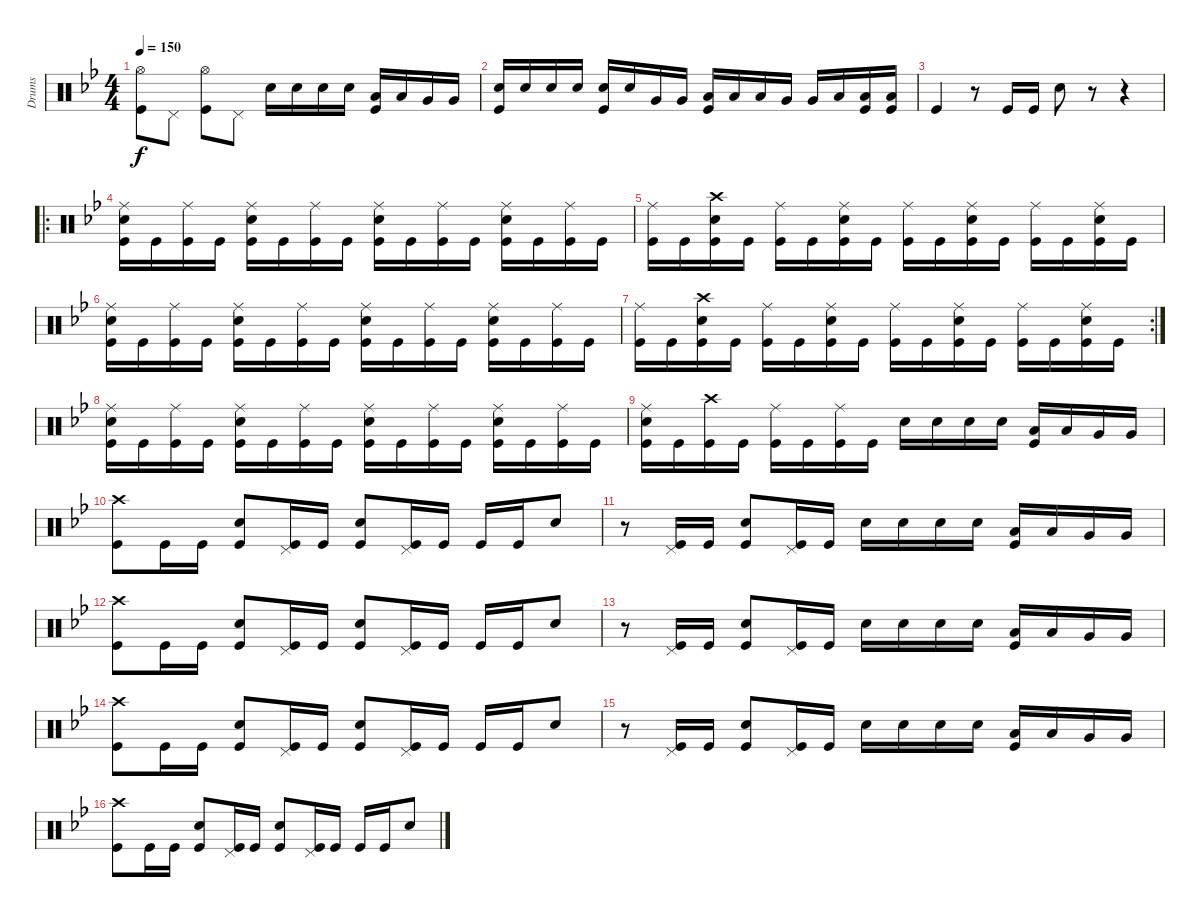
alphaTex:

\track ("Drums" "Drums") {instrument percussion}
\staff {score}
\articulation defaults
\ts (4 4)
\tempo 150
\clef neutral
\ks bb
("Hi-Hat (open)" "Kick (hit)").8{dy f} "Pedal Hi-Hat (hit)".8 ("Hi-Hat (open)" "Kick (hit)").8 "Pedal Hi-Hat (hit)".8 "Electric Snare (hit)".16 "Electric Snare (hit)".16 "Electric Snare (hit)".16 "Electric Snare (hit)".16 ("Low Tom (hit)" "Kick (hit)").16 "Low Tom (hit)".16 "Very Low Tom (hit)".16 "Very Low Tom (hit)".16 |
("Electric Snare (hit)" "Kick (hit)").16 "Electric Snare (hit)".16 "Electric Snare (hit)".16 "Electric Snare (hit)".16 ("Electric Snare (hit)" "Kick (hit)").16 "Electric Snare (hit)".16 "Very Low Tom (hit)".16 "Very Low Tom (hit)".16 ("Low Tom (hit)" "Kick (hit)").16 "Low Tom (hit)".16 "Low Tom (hit)".16 "Very Low Tom (hit)".16 "Very Low Tom (hit)".16 "Low Floor Tom (hit)".16 ("Low Floor Tom (hit)" "Kick (hit)").16 ("Low Floor Tom (hit)" "Kick (hit)").16 |
"Kick (hit)".4 r.8 "Kick (hit)".16 "Kick (hit)".16 "Electric Snare (hit)".8 r.8 r.4 |
\ro
("Ride (middle)" "Electric Snare (hit)" "Kick (hit)").16 "Kick (hit)".16 ("Ride (middle)" "Kick (hit)").16 "Kick (hit)".16 ("Ride (middle)" "Electric Snare (hit)" "Kick (hit)").16 "Kick (hit)".16 ("Ride (middle)" "Kick (hit)").16 "Kick (hit)".16 ("Ride (middle)" "Electric Snare (hit)" "Kick (hit)").16 "Kick (hit)".16 ("Ride (middle)" "Kick (hit)").16 "Kick (hit)".16 ("Ride (middle)" "Electric Snare (hit)" "Kick (hit)").16 "Kick (hit)".16 ("Ride (middle)" "Kick (hit)").16 "Kick (hit)".16 |
("Ride (middle)" "Kick (hit)").16 "Kick (hit)".16 ("Crash high (hit)" "Electric Snare (hit)" "Kick (hit)").16 "Kick (hit)".16 ("Ride (middle)" "Kick (hit)").16 "Kick (hit)".16 ("Ride (middle)" "Electric Snare (hit)" "Kick (hit)").16 "Kick (hit)".16 ("Ride (middle)" "Kick (hit)").16 "Kick (hit)".16 ("Ride (middle)" "Electric Snare (hit)" "Kick (hit)").16 "Kick (hit)".16 ("Ride (middle)" "Kick (hit)").16 "Kick (hit)".16 ("Ride (middle)" "Electric Snare (hit)" "Kick (hit)").16 "Kick (hit)".16 |
("Ride (middle)" "Electric Snare (hit)" "Kick (hit)").16 "Kick (hit)".16 ("Ride (middle)" "Kick (hit)").16 "Kick (hit)".16 ("Ride (middle)" "Electric Snare (hit)" "Kick (hit)").16 "Kick (hit)".16 ("Ride (middle)" "Kick (hit)").16 "Kick (hit)".16 ("Ride (middle)" "Electric Snare (hit)" "Kick (hit)").16 "Kick (hit)".16 ("Ride (middle)" "Kick (hit)").16 "Kick (hit)".16 ("Ride (middle)" "Electric Snare (hit)" "Kick (hit)").16 "Kick (hit)".16 ("Ride (middle)" "Kick (hit)").16 "Kick (hit)".16 |
\rc 2
("Ride (middle)" "Kick (hit)").16 "Kick (hit)".16 ("Crash high (hit)" "Electric Snare (hit)" "Kick (hit)").16 "Kick (hit)".16 ("Ride (middle)" "Kick (hit)").16 "Kick (hit)".16 ("Ride (middle)" "Electric Snare (hit)" "Kick (hit)").16 "Kick (hit)".16 ("Ride (middle)" "Kick (hit)").16 "Kick (hit)".16 ("Ride (middle)" "Electric Snare (hit)" "Kick (hit)").16 "Kick (hit)".16 ("Ride (middle)" "Kick (hit)").16 "Kick (hit)".16 ("Ride (middle)" "Electric Snare (hit)" "Kick (hit)").16 "Kick (hit)".16 |
("Ride (middle)" "Electric Snare (hit)" "Kick (hit)").16 "Kick (hit)".16 ("Ride (middle)" "Kick (hit)").16 "Kick (hit)".16 ("Ride (middle)" "Electric Snare (hit)" "Kick (hit)").16 "Kick (hit)".16 ("Ride (middle)" "Kick (hit)").16 "Kick (hit)".16 ("Ride (middle)" "Electric Snare (hit)" "Kick (hit)").16 "Kick (hit)".16 ("Ride (middle)" "Kick (hit)").16 "Kick (hit)".16 ("Ride (middle)" "Electric Snare (hit)" "Kick (hit)").16 "Kick (hit)".16 ("Ride (middle)" "Kick (hit)").16 "Kick (hit)".16 |
("Ride (middle)" "Electric Snare (hit)" "Kick (hit)").16 "Kick (hit)".16 ("Crash high (hit)" "Kick (hit)").16 "Kick (hit)".16 ("Ride (middle)" "Kick (hit)").16 "Kick (hit)".16 ("Ride (middle)" "Kick (hit)").16 "Kick (hit)".16 "Electric Snare (hit)".16 "Electric Snare (hit)".16 "Electric Snare (hit)".16 "Electric Snare (hit)".16 ("Low Tom (hit)" "Kick (hit)").16 "Low Tom (hit)".16 "Very Low Tom (hit)".16 "Very Low Tom (hit)".16 |
("Crash high (hit)" "Kick (hit)").8 "Kick (hit)".16 "Kick (hit)".16 ("Electric Snare (hit)" "Kick (hit)").8 ("Pedal Hi-Hat (hit)" "Kick (hit)").16 "Kick (hit)".16 ("Electric Snare (hit)" "Kick (hit)").8 ("Pedal Hi-Hat (hit)" "Kick (hit)").16 "Kick (hit)".16 "Kick (hit)".16 "Kick (hit)".16 "Electric Snare (hit)".8 |
r.8 ("Pedal Hi-Hat (hit)" "Kick (hit)").16 "Kick (hit)".16 ("Electric Snare (hit)" "Kick (hit)").8 ("Pedal Hi-Hat (hit)" "Kick (hit)").16 "Kick (hit)".16 "Electric Snare (hit)".16 "Electric Snare (hit)".16 "Electric Snare (hit)".16 "Electric Snare (hit)".16 ("Low Tom (hit)" "Kick (hit)").16 "Low Tom (hit)".16 "Very Low Tom (hit)".16 "Very Low Tom (hit)".16 |
("Crash high (hit)" "Kick (hit)").8 "Kick (hit)".16 "Kick (hit)".16 ("Electric Snare (hit)" "Kick (hit)").8 ("Pedal Hi-Hat (hit)" "Kick (hit)").16 "Kick (hit)".16 ("Electric Snare (hit)" "Kick (hit)").8 ("Pedal Hi-Hat (hit)" "Kick (hit)").16 "Kick (hit)".16 "Kick (hit)".16 "Kick (hit)".16 "Electric Snare (hit)".8 |
r.8 ("Pedal Hi-Hat (hit)" "Kick (hit)").16 "Kick (hit)".16 ("Electric Snare (hit)" "Kick (hit)").8 ("Pedal Hi-Hat (hit)" "Kick (hit)").16 "Kick (hit)".16 "Electric Snare (hit)".16 "Electric Snare (hit)".16 "Electric Snare (hit)".16 "Electric Snare (hit)".16 ("Low Tom (hit)" "Kick (hit)").16 "Low Tom (hit)".16 "Very Low Tom (hit)".16 "Very Low Tom (hit)".16 |
("Crash high (hit)" "Kick (hit)").8 "Kick (hit)".16 "Kick (hit)".16 ("Electric Snare (hit)" "Kick (hit)").8 ("Pedal Hi-Hat (hit)" "Kick (hit)").16 "Kick (hit)".16 ("Electric Snare (hit)" "Kick (hit)").8 ("Pedal Hi-Hat (hit)" "Kick (hit)").16 "Kick (hit)".16 "Kick (hit)".16 "Kick (hit)".16 "Electric Snare (hit)".8 |
r.8 ("Pedal Hi-Hat (hit)" "Kick (hit)").16 "Kick (hit)".16 ("Electric Snare (hit)" "Kick (hit)").8 ("Pedal Hi-Hat (hit)" "Kick (hit)").16 "Kick (hit)".16 "Electric Snare (hit)".16 "Electric Snare (hit)".16 "Electric Snare (hit)".16 "Electric Snare (hit)".16 ("Low Tom (hit)" "Kick (hit)").16 "Low Tom (hit)".16 "Very Low Tom (hit)".16 "Very Low Tom (hit)".16 |
("Crash high (hit)" "Kick (hit)").8 "Kick (hit)".16 "Kick (hit)".16 ("Electric Snare (hit)" "Kick (hit)").8 ("Pedal Hi-Hat (hit)" "Kick (hit)").16 "Kick (hit)".16 ("Electric Snare (hit)" "Kick (hit)").8 ("Pedal Hi-Hat (hit)" "Kick (hit)").16 "Kick (hit)".16 "Kick (hit)".16 "Kick (hit)".16 "Electric Snare (hit)".8
